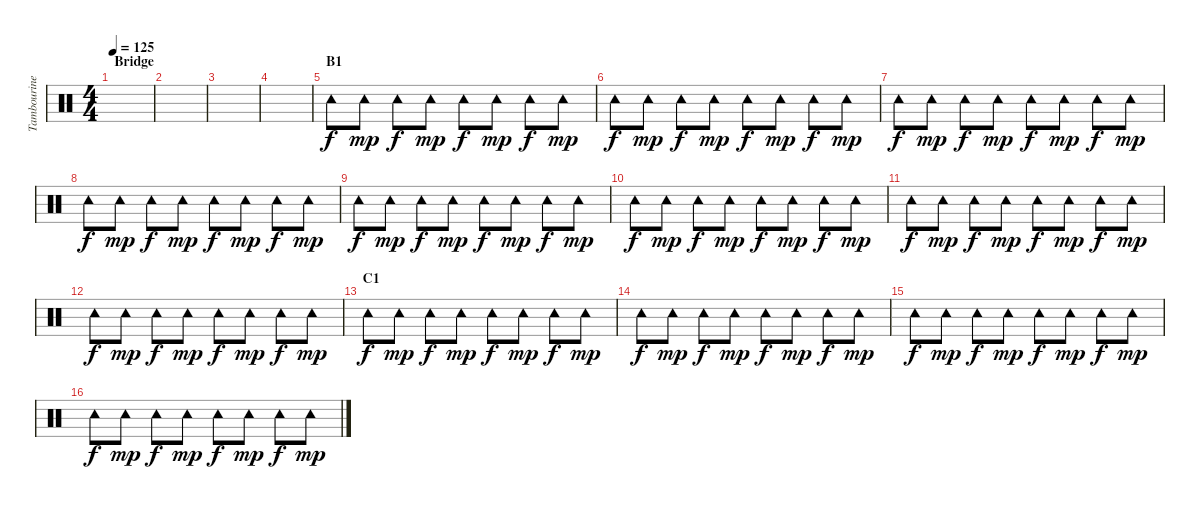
\track ("Tambourine" "Tambourine") {instrument percussion}
\staff {score}
\articulation defaults
\ts (4 4)
\section ("" "Bridge")
\tempo 125
\clef neutral
\ks c
|
|
|
|
\section ("" "B1")
"Tambourine (hit)".8 "Tambourine (hit)".8{dy mp} "Tambourine (hit)".8{dy f} "Tambourine (hit)".8{dy mp} "Tambourine (hit)".8{dy f} "Tambourine (hit)".8{dy mp} "Tambourine (hit)".8{dy f} "Tambourine (hit)".8{dy mp} |
"Tambourine (hit)".8{dy f} "Tambourine (hit)".8{dy mp} "Tambourine (hit)".8{dy f} "Tambourine (hit)".8{dy mp} "Tambourine (hit)".8{dy f} "Tambourine (hit)".8{dy mp} "Tambourine (hit)".8{dy f} "Tambourine (hit)".8{dy mp} |
"Tambourine (hit)".8{dy f} "Tambourine (hit)".8{dy mp} "Tambourine (hit)".8{dy f} "Tambourine (hit)".8{dy mp} "Tambourine (hit)".8{dy f} "Tambourine (hit)".8{dy mp} "Tambourine (hit)".8{dy f} "Tambourine (hit)".8{dy mp} |
"Tambourine (hit)".8{dy f} "Tambourine (hit)".8{dy mp} "Tambourine (hit)".8{dy f} "Tambourine (hit)".8{dy mp} "Tambourine (hit)".8{dy f} "Tambourine (hit)".8{dy mp} "Tambourine (hit)".8{dy f} "Tambourine (hit)".8{dy mp} |
"Tambourine (hit)".8{dy f} "Tambourine (hit)".8{dy mp} "Tambourine (hit)".8{dy f} "Tambourine (hit)".8{dy mp} "Tambourine (hit)".8{dy f} "Tambourine (hit)".8{dy mp} "Tambourine (hit)".8{dy f} "Tambourine (hit)".8{dy mp} |
"Tambourine (hit)".8{dy f} "Tambourine (hit)".8{dy mp} "Tambourine (hit)".8{dy f} "Tambourine (hit)".8{dy mp} "Tambourine (hit)".8{dy f} "Tambourine (hit)".8{dy mp} "Tambourine (hit)".8{dy f} "Tambourine (hit)".8{dy mp} |
"Tambourine (hit)".8{dy f} "Tambourine (hit)".8{dy mp} "Tambourine (hit)".8{dy f} "Tambourine (hit)".8{dy mp} "Tambourine (hit)".8{dy f} "Tambourine (hit)".8{dy mp} "Tambourine (hit)".8{dy f} "Tambourine (hit)".8{dy mp} |
"Tambourine (hit)".8{dy f} "Tambourine (hit)".8{dy mp} "Tambourine (hit)".8{dy f} "Tambourine (hit)".8{dy mp} "Tambourine (hit)".8{dy f} "Tambourine (hit)".8{dy mp} "Tambourine (hit)".8{dy f} "Tambourine (hit)".8{dy mp} |
\section ("" "C1")
"Tambourine (hit)".8{dy f} "Tambourine (hit)".8{dy mp} "Tambourine (hit)".8{dy f} "Tambourine (hit)".8{dy mp} "Tambourine (hit)".8{dy f} "Tambourine (hit)".8{dy mp} "Tambourine (hit)".8{dy f} "Tambourine (hit)".8{dy mp} |
"Tambourine (hit)".8{dy f} "Tambourine (hit)".8{dy mp} "Tambourine (hit)".8{dy f} "Tambourine (hit)".8{dy mp} "Tambourine (hit)".8{dy f} "Tambourine (hit)".8{dy mp} "Tambourine (hit)".8{dy f} "Tambourine (hit)".8{dy mp} |
"Tambourine (hit)".8{dy f} "Tambourine (hit)".8{dy mp} "Tambourine (hit)".8{dy f} "Tambourine (hit)".8{dy mp} "Tambourine (hit)".8{dy f} "Tambourine (hit)".8{dy mp} "Tambourine (hit)".8{dy f} "Tambourine (hit)".8{dy mp} |
"Tambourine (hit)".8{dy f} "Tambourine (hit)".8{dy mp} "Tambourine (hit)".8{dy f} "Tambourine (hit)".8{dy mp} "Tambourine (hit)".8{dy f} "Tambourine (hit)".8{dy mp} "Tambourine (hit)".8{dy f} "Tambourine (hit)".8{dy mp}
